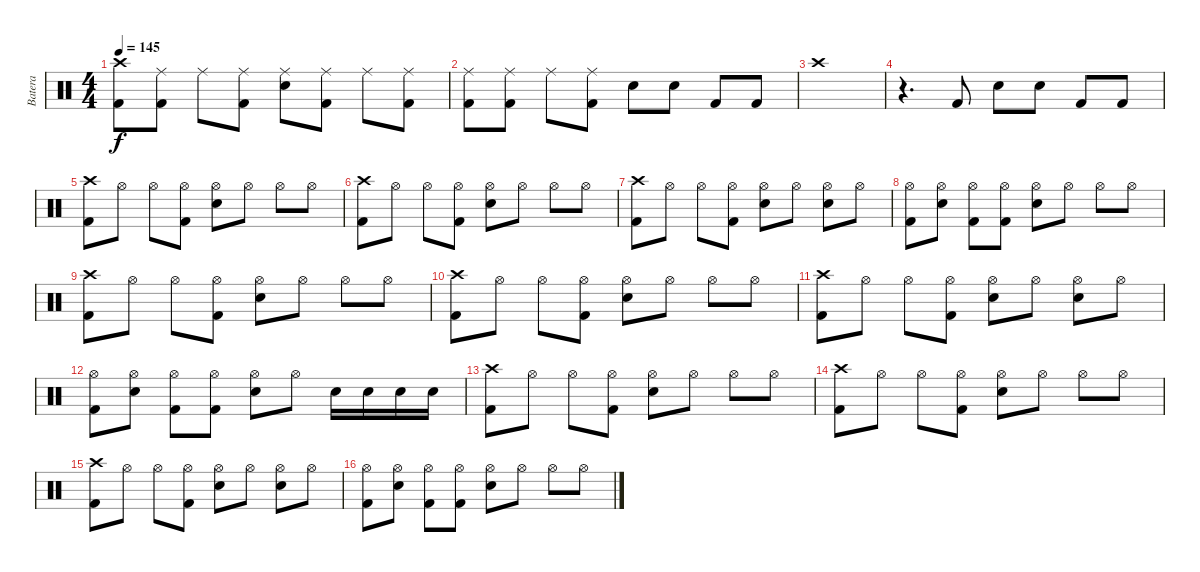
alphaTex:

\track ("Batera" "Batera") {instrument percussion}
\staff {score}
\articulation defaults
\ts (4 4)
\tempo 145
\clef neutral
\ks c
("Crash high (hit)" "Kick (hit) 2").8{dy f} ("Ride (middle)" "Kick (hit) 2").8 "Ride (middle)".8 ("Ride (middle)" "Kick (hit) 2").8 ("Ride (middle)" "Electric Snare (hit)").8 ("Ride (middle)" "Kick (hit) 2").8 "Ride (middle)".8 ("Ride (middle)" "Kick (hit) 2").8 |
("Ride (middle)" "Kick (hit) 2").8 ("Ride (middle)" "Kick (hit) 2").8 "Ride (middle)".8 ("Ride (middle)" "Kick (hit) 2").8 "Electric Snare (hit)".8 "Electric Snare (hit)".8 "Kick (hit) 2".8 "Kick (hit) 2".8 |
"Crash high (hit)".1 |
r.4{d} "Kick (hit) 2".8 "Electric Snare (hit)".8 "Electric Snare (hit)".8 "Kick (hit) 2".8 "Kick (hit) 2".8 |
("Crash high (hit)" "Kick (hit) 2").8 "Hi-Hat (open)".8 "Hi-Hat (open)".8 ("Hi-Hat (open)" "Kick (hit) 2").8 ("Hi-Hat (open)" "Electric Snare (hit)").8 "Hi-Hat (open)".8 "Hi-Hat (open)".8 "Hi-Hat (open)".8 |
("Crash high (hit)" "Kick (hit) 2").8 "Hi-Hat (open)".8 "Hi-Hat (open)".8 ("Hi-Hat (open)" "Kick (hit) 2").8 ("Hi-Hat (open)" "Electric Snare (hit)").8 "Hi-Hat (open)".8 "Hi-Hat (open)".8 "Hi-Hat (open)".8 |
("Crash high (hit)" "Kick (hit) 2").8 "Hi-Hat (open)".8 "Hi-Hat (open)".8 ("Hi-Hat (open)" "Kick (hit) 2").8 ("Hi-Hat (open)" "Electric Snare (hit)").8 "Hi-Hat (open)".8 ("Hi-Hat (open)" "Electric Snare (hit)").8 "Hi-Hat (open)".8 |
("Hi-Hat (open)" "Kick (hit) 2").8 ("Hi-Hat (open)" "Electric Snare (hit)").8 ("Hi-Hat (open)" "Kick (hit) 2").8 ("Hi-Hat (open)" "Kick (hit) 2").8 ("Hi-Hat (open)" "Electric Snare (hit)").8 "Hi-Hat (open)".8 "Hi-Hat (open)".8 "Hi-Hat (open)".8 |
("Crash high (hit)" "Kick (hit) 2").8 "Hi-Hat (open)".8 "Hi-Hat (open)".8 ("Hi-Hat (open)" "Kick (hit) 2").8 ("Hi-Hat (open)" "Electric Snare (hit)").8 "Hi-Hat (open)".8 "Hi-Hat (open)".8 "Hi-Hat (open)".8 |
("Crash high (hit)" "Kick (hit) 2").8 "Hi-Hat (open)".8 "Hi-Hat (open)".8 ("Hi-Hat (open)" "Kick (hit) 2").8 ("Hi-Hat (open)" "Electric Snare (hit)").8 "Hi-Hat (open)".8 "Hi-Hat (open)".8 "Hi-Hat (open)".8 |
("Crash high (hit)" "Kick (hit) 2").8 "Hi-Hat (open)".8 "Hi-Hat (open)".8 ("Hi-Hat (open)" "Kick (hit) 2").8 ("Hi-Hat (open)" "Electric Snare (hit)").8 "Hi-Hat (open)".8 ("Hi-Hat (open)" "Electric Snare (hit)").8 "Hi-Hat (open)".8 |
("Hi-Hat (open)" "Kick (hit) 2").8 ("Hi-Hat (open)" "Electric Snare (hit)").8 ("Hi-Hat (open)" "Kick (hit) 2").8 ("Hi-Hat (open)" "Kick (hit) 2").8 ("Hi-Hat (open)" "Electric Snare (hit)").8 "Hi-Hat (open)".8 "Electric Snare (hit)".16 "Electric Snare (hit)".16 "Electric Snare (hit)".16 "Electric Snare (hit)".16 |
("Crash high (hit)" "Kick (hit) 2").8 "Hi-Hat (open)".8 "Hi-Hat (open)".8 ("Hi-Hat (open)" "Kick (hit) 2").8 ("Hi-Hat (open)" "Electric Snare (hit)").8 "Hi-Hat (open)".8 "Hi-Hat (open)".8 "Hi-Hat (open)".8 |
("Crash high (hit)" "Kick (hit) 2").8 "Hi-Hat (open)".8 "Hi-Hat (open)".8 ("Hi-Hat (open)" "Kick (hit) 2").8 ("Hi-Hat (open)" "Electric Snare (hit)").8 "Hi-Hat (open)".8 "Hi-Hat (open)".8 "Hi-Hat (open)".8 |
("Crash high (hit)" "Kick (hit) 2").8 "Hi-Hat (open)".8 "Hi-Hat (open)".8 ("Hi-Hat (open)" "Kick (hit) 2").8 ("Hi-Hat (open)" "Electric Snare (hit)").8 "Hi-Hat (open)".8 ("Hi-Hat (open)" "Electric Snare (hit)").8 "Hi-Hat (open)".8 |
("Hi-Hat (open)" "Kick (hit) 2").8 ("Hi-Hat (open)" "Electric Snare (hit)").8 ("Hi-Hat (open)" "Kick (hit) 2").8 ("Hi-Hat (open)" "Kick (hit) 2").8 ("Hi-Hat (open)" "Electric Snare (hit)").8 "Hi-Hat (open)".8 "Hi-Hat (open)".8 "Hi-Hat (open)".8
